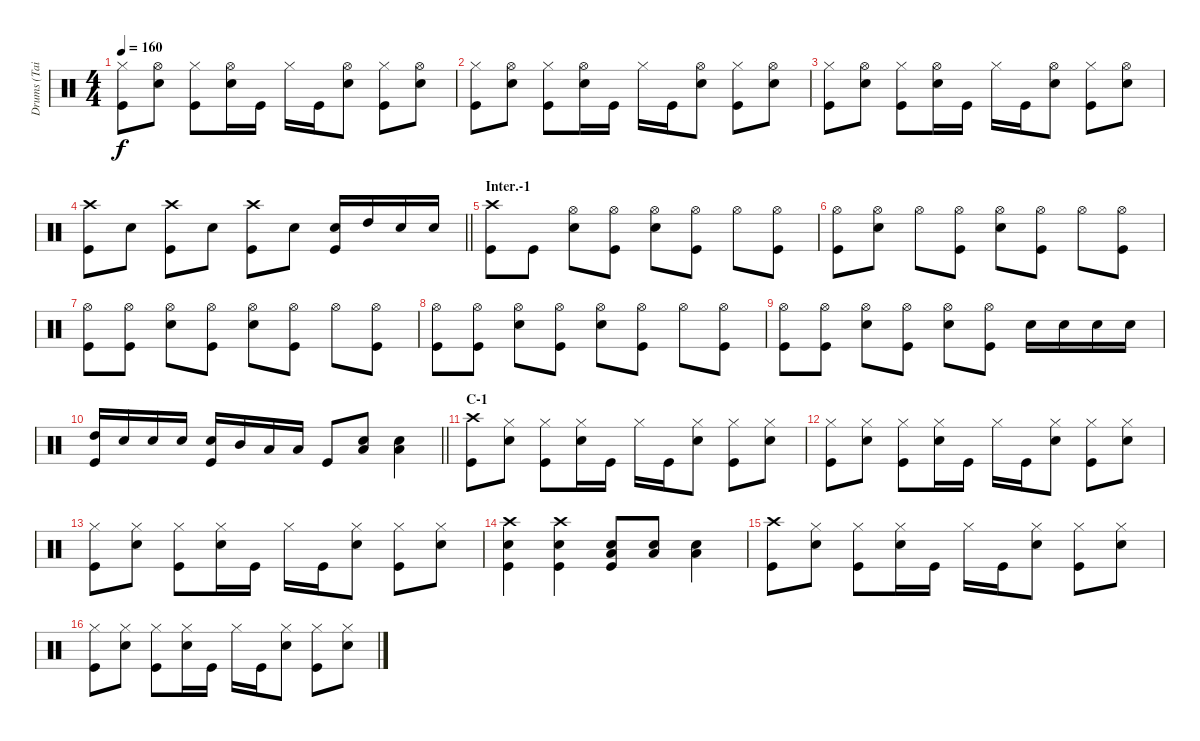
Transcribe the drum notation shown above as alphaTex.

\track ("Drums (Tainaka Ritsu)" "Drums (Tai") {instrument percussion}
\staff {score}
\articulation defaults
\ts (4 4)
\tempo 160
\clef neutral
\ks c
("Hi-Hat (closed)" "Kick (hit)").8{dy f} ("Hi-Hat (open)" "Snare (hit) 2").8 ("Hi-Hat (closed)" "Kick (hit)").8 ("Hi-Hat (open)" "Snare (hit) 2").16 "Kick (hit)".16 "Hi-Hat (closed)".16 "Kick (hit)".16 ("Hi-Hat (open)" "Snare (hit) 2").8 ("Hi-Hat (closed)" "Kick (hit)").8 ("Hi-Hat (open)" "Snare (hit) 2").8 |
("Hi-Hat (closed)" "Kick (hit)").8 ("Hi-Hat (open)" "Snare (hit) 2").8 ("Hi-Hat (closed)" "Kick (hit)").8 ("Hi-Hat (open)" "Snare (hit) 2").16 "Kick (hit)".16 "Hi-Hat (closed)".16 "Kick (hit)".16 ("Hi-Hat (open)" "Snare (hit) 2").8 ("Hi-Hat (closed)" "Kick (hit)").8 ("Hi-Hat (open)" "Snare (hit) 2").8 |
("Hi-Hat (closed)" "Kick (hit)").8 ("Hi-Hat (open)" "Snare (hit) 2").8 ("Hi-Hat (closed)" "Kick (hit)").8 ("Hi-Hat (open)" "Snare (hit) 2").16 "Kick (hit)".16 "Hi-Hat (closed)".16 "Kick (hit)".16 ("Hi-Hat (open)" "Snare (hit) 2").8 ("Hi-Hat (closed)" "Kick (hit)").8 ("Hi-Hat (open)" "Snare (hit) 2").8 |
\barLineRight lightlight
("Crash high (hit)" "Kick (hit)").8 "Snare (hit) 2".8 ("Crash high (hit)" "Kick (hit)").8 "Snare (hit) 2".8 ("Crash high (hit)" "Kick (hit)").8 "Snare (hit) 2".8 ("Snare (hit) 2" "Kick (hit)").16 "High Tom (hit)".16 "Snare (hit) 2".16 "Snare (hit) 2".16 |
\section ("" "Inter.-1")
("Crash high (hit)" "Kick (hit)").8 "Kick (hit)".8 ("Hi-Hat (open)" "Snare (hit) 2").8 ("Hi-Hat (open)" "Kick (hit)").8 ("Hi-Hat (open)" "Snare (hit) 2").8 ("Hi-Hat (open)" "Kick (hit)").8 "Hi-Hat (open)".8 ("Hi-Hat (open)" "Kick (hit)").8 |
("Hi-Hat (open)" "Kick (hit)").8 ("Hi-Hat (open)" "Snare (hit) 2").8 "Hi-Hat (open)".8 ("Hi-Hat (open)" "Kick (hit)").8 ("Hi-Hat (open)" "Snare (hit) 2").8 ("Hi-Hat (open)" "Kick (hit)").8 "Hi-Hat (open)".8 ("Hi-Hat (open)" "Kick (hit)").8 |
("Hi-Hat (open)" "Kick (hit)").8 ("Hi-Hat (open)" "Kick (hit)").8 ("Hi-Hat (open)" "Snare (hit) 2").8 ("Hi-Hat (open)" "Kick (hit)").8 ("Hi-Hat (open)" "Snare (hit) 2").8 ("Hi-Hat (open)" "Kick (hit)").8 "Hi-Hat (open)".8 ("Hi-Hat (open)" "Kick (hit)").8 |
("Hi-Hat (open)" "Kick (hit)").8 ("Hi-Hat (open)" "Kick (hit)").8 ("Hi-Hat (open)" "Snare (hit) 2").8 ("Hi-Hat (open)" "Kick (hit)").8 ("Hi-Hat (open)" "Snare (hit) 2").8 ("Hi-Hat (open)" "Kick (hit)").8 "Hi-Hat (open)".8 ("Hi-Hat (open)" "Kick (hit)").8 |
("Hi-Hat (open)" "Kick (hit)").8 ("Hi-Hat (open)" "Kick (hit)").8 ("Hi-Hat (open)" "Snare (hit) 2").8 ("Hi-Hat (open)" "Kick (hit)").8 ("Hi-Hat (open)" "Snare (hit) 2").8 ("Hi-Hat (open)" "Kick (hit)").8 "Snare (hit) 2".16 "Snare (hit) 2".16 "Snare (hit) 2".16 "Snare (hit) 2".16 |
\barLineRight lightlight
("High Tom (hit)" "Kick (hit)").16 "Snare (hit) 2".16 "Snare (hit) 2".16 "Snare (hit) 2".16 ("Snare (hit) 2" "Kick (hit)").16 "Mid Tom (hit)".16 "Low Tom (hit)".16 "Low Tom (hit)".16 "Kick (hit)".8 ("Snare (hit) 2" "Low Tom (hit)").8 ("Snare (hit) 2" "Low Tom (hit)").4 |
\section ("" "C-1")
("Crash high (hit)" "Kick (hit)").8 ("Hi-Hat (closed)" "Snare (hit) 2").8 ("Hi-Hat (closed)" "Kick (hit)").8 ("Hi-Hat (closed)" "Snare (hit) 2").16 "Kick (hit)".16 "Hi-Hat (closed)".16 "Kick (hit)".16 ("Hi-Hat (closed)" "Snare (hit) 2").8 ("Hi-Hat (closed)" "Kick (hit)").8 ("Hi-Hat (closed)" "Snare (hit) 2").8 |
("Hi-Hat (closed)" "Kick (hit)").8 ("Hi-Hat (closed)" "Snare (hit) 2").8 ("Hi-Hat (closed)" "Kick (hit)").8 ("Hi-Hat (closed)" "Snare (hit) 2").16 "Kick (hit)".16 "Hi-Hat (closed)".16 "Kick (hit)".16 ("Hi-Hat (closed)" "Snare (hit) 2").8 ("Hi-Hat (closed)" "Kick (hit)").8 ("Hi-Hat (closed)" "Snare (hit) 2").8 |
("Hi-Hat (closed)" "Kick (hit)").8 ("Hi-Hat (closed)" "Snare (hit) 2").8 ("Hi-Hat (closed)" "Kick (hit)").8 ("Hi-Hat (closed)" "Snare (hit) 2").16 "Kick (hit)".16 "Hi-Hat (closed)".16 "Kick (hit)".16 ("Hi-Hat (closed)" "Snare (hit) 2").8 ("Hi-Hat (closed)" "Kick (hit)").8 ("Hi-Hat (closed)" "Snare (hit) 2").8 |
("Crash high (hit)" "Snare (hit) 2" "Kick (hit)").4 ("Crash high (hit)" "Snare (hit) 2" "Kick (hit)").4 ("Snare (hit) 2" "Low Tom (hit)" "Kick (hit)").8 ("Snare (hit) 2" "Low Tom (hit)").8 ("Snare (hit) 2" "Low Tom (hit)").4 |
("Crash high (hit)" "Kick (hit)").8 ("Hi-Hat (closed)" "Snare (hit) 2").8 ("Hi-Hat (closed)" "Kick (hit)").8 ("Hi-Hat (closed)" "Snare (hit) 2").16 "Kick (hit)".16 "Hi-Hat (closed)".16 "Kick (hit)".16 ("Hi-Hat (closed)" "Snare (hit) 2").8 ("Hi-Hat (closed)" "Kick (hit)").8 ("Hi-Hat (closed)" "Snare (hit) 2").8 |
("Hi-Hat (closed)" "Kick (hit)").8 ("Hi-Hat (closed)" "Snare (hit) 2").8 ("Hi-Hat (closed)" "Kick (hit)").8 ("Hi-Hat (closed)" "Snare (hit) 2").16 "Kick (hit)".16 "Hi-Hat (closed)".16 "Kick (hit)".16 ("Hi-Hat (closed)" "Snare (hit) 2").8 ("Hi-Hat (closed)" "Kick (hit)").8 ("Hi-Hat (closed)" "Snare (hit) 2").8
